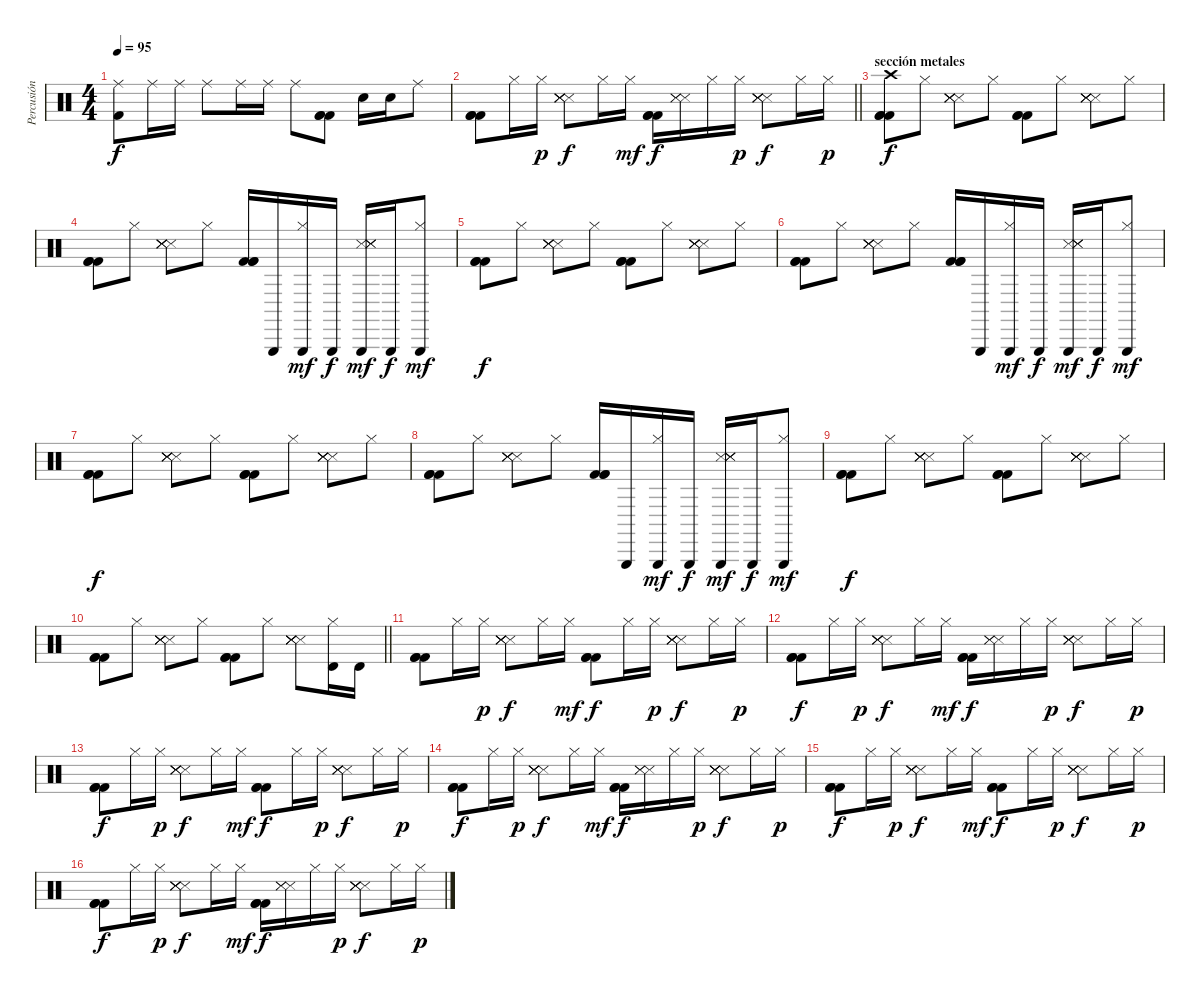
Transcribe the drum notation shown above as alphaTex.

\track ("Percusión" "Percusión") {instrument percussion}
\staff
\articulation defaults
\ts (4 4)
\tempo 95
\clef neutral
\ks c
("Ride (middle)" "Kick (hit) 2").8{dy f} "Ride (middle)".16 "Ride (middle)".16 "Ride (middle)".8 "Ride (middle)".16 "Ride (middle)".16 "Ride (middle)".8 ("Kick (hit) 2" "Kick (hit) 2" "Kick (hit) 2").8 "Electric Snare (hit)".16 "Electric Snare (hit)".16 "Ride (middle)".8 |
\barLineRight lightlight
("Kick (hit) 2" "Kick (hit) 2" "Kick (hit) 2").8 "Hi-Hat (closed)".16 "Hi-Hat (closed)".16{dy p} ("Metronome (hit)" "Metronome (hit)" "Metronome (hit)" "Metronome (hit)" "Metronome (hit)").8{dy f} "Hi-Hat (closed)".16 "Hi-Hat (closed)".16{dy mf} ("Kick (hit) 2" "Kick (hit) 2" "Kick (hit) 2").16{dy f} ("Snare (side stick) 3" "Snare (side stick) 3" "Snare (side stick) 3").16 "Hi-Hat (closed)".16 "Hi-Hat (closed)".16{dy p} ("Snare (side stick) 3" "Snare (side stick) 3" "Snare (side stick) 3" "Snare (side stick) 3" "Snare (side stick) 3").8{dy f} "Hi-Hat (closed)".16 "Hi-Hat (closed)".16{dy p} |
\section ("" "sección metales ")
("Crash high (hit)" "Kick (hit) 2" "Kick (hit) 2" "Kick (hit) 2").8{dy f} "Hi-Hat (closed)".8 ("Metronome (hit)" "Metronome (hit)" "Metronome (hit)" "Metronome (hit)" "Metronome (hit)").8 "Hi-Hat (closed)".8 ("Kick (hit) 2" "Kick (hit) 2" "Kick (hit) 2").8 "Hi-Hat (closed)".8 ("Metronome (hit)" "Metronome (hit)" "Metronome (hit)" "Metronome (hit)" "Metronome (hit)").8 "Hi-Hat (closed)".8 |
("Kick (hit) 2" "Kick (hit) 2" "Kick (hit) 2").8 "Hi-Hat (closed)".8 ("Metronome (hit)" "Metronome (hit)" "Metronome (hit)" "Metronome (hit)" "Metronome (hit)").8 "Hi-Hat (closed)".8 ("Kick (hit) 2" "Kick (hit) 2" "Kick (hit) 2").16 "Triangle (hit)".16 ("Triangle (hit)" "Hi-Hat (closed)").16{dy mf} "Triangle (hit)".16{dy f} ("Metronome (hit)" "Triangle (hit)" "Metronome (hit)" "Metronome (hit)" "Metronome (hit)").16{dy mf} "Triangle (hit)".16{dy f} ("Triangle (hit)" "Hi-Hat (closed)").8{dy mf} |
("Kick (hit) 2" "Kick (hit) 2" "Kick (hit) 2").8{dy f} "Hi-Hat (closed)".8 ("Metronome (hit)" "Metronome (hit)" "Metronome (hit)" "Metronome (hit)" "Metronome (hit)").8 "Hi-Hat (closed)".8 ("Kick (hit) 2" "Kick (hit) 2" "Kick (hit) 2").8 "Hi-Hat (closed)".8 ("Metronome (hit)" "Metronome (hit)" "Metronome (hit)" "Metronome (hit)" "Metronome (hit)").8 "Hi-Hat (closed)".8 |
("Kick (hit) 2" "Kick (hit) 2" "Kick (hit) 2").8 "Hi-Hat (closed)".8 ("Metronome (hit)" "Metronome (hit)" "Metronome (hit)" "Metronome (hit)" "Metronome (hit)").8 "Hi-Hat (closed)".8 ("Kick (hit) 2" "Kick (hit) 2" "Kick (hit) 2").16 "Triangle (hit)".16 ("Triangle (hit)" "Hi-Hat (closed)").16{dy mf} "Triangle (hit)".16{dy f} ("Metronome (hit)" "Triangle (hit)" "Metronome (hit)" "Metronome (hit)" "Metronome (hit)").16{dy mf} "Triangle (hit)".16{dy f} ("Triangle (hit)" "Hi-Hat (closed)").8{dy mf} |
("Kick (hit) 2" "Kick (hit) 2" "Kick (hit) 2").8{dy f} "Hi-Hat (closed)".8 ("Metronome (hit)" "Metronome (hit)" "Metronome (hit)" "Metronome (hit)" "Metronome (hit)").8 "Hi-Hat (closed)".8 ("Kick (hit) 2" "Kick (hit) 2" "Kick (hit) 2").8 "Hi-Hat (closed)".8 ("Metronome (hit)" "Metronome (hit)" "Metronome (hit)" "Metronome (hit)" "Metronome (hit)").8 "Hi-Hat (closed)".8 |
("Kick (hit) 2" "Kick (hit) 2" "Kick (hit) 2").8 "Hi-Hat (closed)".8 ("Metronome (hit)" "Metronome (hit)" "Metronome (hit)" "Metronome (hit)" "Metronome (hit)").8 "Hi-Hat (closed)".8 ("Kick (hit) 2" "Kick (hit) 2" "Kick (hit) 2").16 "Triangle (hit)".16 ("Triangle (hit)" "Hi-Hat (closed)").16{dy mf} "Triangle (hit)".16{dy f} ("Metronome (hit)" "Triangle (hit)" "Metronome (hit)" "Metronome (hit)" "Metronome (hit)").16{dy mf} "Triangle (hit)".16{dy f} ("Triangle (hit)" "Hi-Hat (closed)").8{dy mf} |
("Kick (hit) 2" "Kick (hit) 2" "Kick (hit) 2").8{dy f} "Hi-Hat (closed)".8 ("Metronome (hit)" "Metronome (hit)" "Metronome (hit)" "Metronome (hit)" "Metronome (hit)").8 "Hi-Hat (closed)".8 ("Kick (hit) 2" "Kick (hit) 2" "Kick (hit) 2").8 "Hi-Hat (closed)".8 ("Metronome (hit)" "Metronome (hit)" "Metronome (hit)" "Metronome (hit)" "Metronome (hit)").8 "Hi-Hat (closed)".8 |
\barLineRight lightlight
("Kick (hit) 2" "Kick (hit) 2" "Kick (hit) 2").8 "Hi-Hat (closed)".8 ("Metronome (hit)" "Metronome (hit)" "Metronome (hit)" "Metronome (hit)" "Metronome (hit)").8 "Hi-Hat (closed)".8 ("Kick (hit) 2" "Kick (hit) 2" "Kick (hit) 2").8 "Hi-Hat (closed)".8 ("Metronome (hit)" "Metronome (hit)" "Metronome (hit)" "Metronome (hit)" "Metronome (hit)").8 ("Hi-Hat (closed)" "Timbale high (hit)").16 "Timbale high (hit)".16 |
("Kick (hit) 2" "Kick (hit) 2" "Kick (hit) 2").8 "Hi-Hat (closed)".16 "Hi-Hat (closed)".16{dy p} ("Metronome (hit)" "Metronome (hit)" "Metronome (hit)" "Metronome (hit)" "Metronome (hit)").8{dy f} "Hi-Hat (closed)".16 "Hi-Hat (closed)".16{dy mf} ("Kick (hit) 2" "Kick (hit) 2" "Kick (hit) 2").8{dy f} "Hi-Hat (closed)".16 "Hi-Hat (closed)".16{dy p} ("Metronome (hit)" "Metronome (hit)" "Metronome (hit)" "Metronome (hit)" "Metronome (hit)").8{dy f} "Hi-Hat (closed)".16 "Hi-Hat (closed)".16{dy p} |
("Kick (hit) 2" "Kick (hit) 2" "Kick (hit) 2").8{dy f} "Hi-Hat (closed)".16 "Hi-Hat (closed)".16{dy p} ("Metronome (hit)" "Metronome (hit)" "Metronome (hit)" "Metronome (hit)" "Metronome (hit)").8{dy f} "Hi-Hat (closed)".16 "Hi-Hat (closed)".16{dy mf} ("Kick (hit) 2" "Kick (hit) 2" "Kick (hit) 2").16{dy f} ("Snare (side stick) 3" "Snare (side stick) 3" "Snare (side stick) 3").16 "Hi-Hat (closed)".16 "Hi-Hat (closed)".16{dy p} ("Snare (side stick) 3" "Snare (side stick) 3" "Snare (side stick) 3" "Snare (side stick) 3" "Snare (side stick) 3").8{dy f} "Hi-Hat (closed)".16 "Hi-Hat (closed)".16{dy p} |
("Kick (hit) 2" "Kick (hit) 2" "Kick (hit) 2").8{dy f} "Hi-Hat (closed)".16 "Hi-Hat (closed)".16{dy p} ("Metronome (hit)" "Metronome (hit)" "Metronome (hit)" "Metronome (hit)" "Metronome (hit)").8{dy f} "Hi-Hat (closed)".16 "Hi-Hat (closed)".16{dy mf} ("Kick (hit) 2" "Kick (hit) 2" "Kick (hit) 2").8{dy f} "Hi-Hat (closed)".16 "Hi-Hat (closed)".16{dy p} ("Metronome (hit)" "Metronome (hit)" "Metronome (hit)" "Metronome (hit)" "Metronome (hit)").8{dy f} "Hi-Hat (closed)".16 "Hi-Hat (closed)".16{dy p} |
("Kick (hit) 2" "Kick (hit) 2" "Kick (hit) 2").8{dy f} "Hi-Hat (closed)".16 "Hi-Hat (closed)".16{dy p} ("Metronome (hit)" "Metronome (hit)" "Metronome (hit)" "Metronome (hit)" "Metronome (hit)").8{dy f} "Hi-Hat (closed)".16 "Hi-Hat (closed)".16{dy mf} ("Kick (hit) 2" "Kick (hit) 2" "Kick (hit) 2").16{dy f} ("Snare (side stick) 3" "Snare (side stick) 3" "Snare (side stick) 3").16 "Hi-Hat (closed)".16 "Hi-Hat (closed)".16{dy p} ("Snare (side stick) 3" "Snare (side stick) 3" "Snare (side stick) 3" "Snare (side stick) 3" "Snare (side stick) 3").8{dy f} "Hi-Hat (closed)".16 "Hi-Hat (closed)".16{dy p} |
("Kick (hit) 2" "Kick (hit) 2" "Kick (hit) 2").8{dy f} "Hi-Hat (closed)".16 "Hi-Hat (closed)".16{dy p} ("Metronome (hit)" "Metronome (hit)" "Metronome (hit)" "Metronome (hit)" "Metronome (hit)").8{dy f} "Hi-Hat (closed)".16 "Hi-Hat (closed)".16{dy mf} ("Kick (hit) 2" "Kick (hit) 2" "Kick (hit) 2").8{dy f} "Hi-Hat (closed)".16 "Hi-Hat (closed)".16{dy p} ("Metronome (hit)" "Metronome (hit)" "Metronome (hit)" "Metronome (hit)" "Metronome (hit)").8{dy f} "Hi-Hat (closed)".16 "Hi-Hat (closed)".16{dy p} |
("Kick (hit) 2" "Kick (hit) 2" "Kick (hit) 2").8{dy f} "Hi-Hat (closed)".16 "Hi-Hat (closed)".16{dy p} ("Metronome (hit)" "Metronome (hit)" "Metronome (hit)" "Metronome (hit)" "Metronome (hit)").8{dy f} "Hi-Hat (closed)".16 "Hi-Hat (closed)".16{dy mf} ("Kick (hit) 2" "Kick (hit) 2" "Kick (hit) 2").16{dy f} ("Snare (side stick) 3" "Snare (side stick) 3" "Snare (side stick) 3").16 "Hi-Hat (closed)".16 "Hi-Hat (closed)".16{dy p} ("Snare (side stick) 3" "Snare (side stick) 3" "Snare (side stick) 3" "Snare (side stick) 3" "Snare (side stick) 3").8{dy f} "Hi-Hat (closed)".16 "Hi-Hat (closed)".16{dy p}
